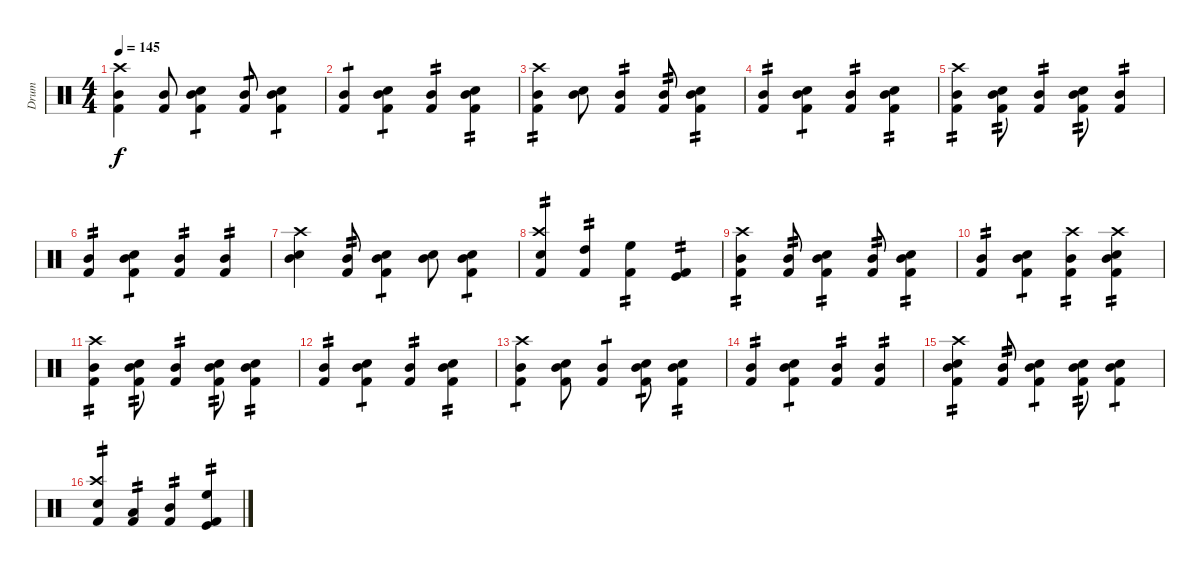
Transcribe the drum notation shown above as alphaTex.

\track ("Drum" "Drum") {instrument percussion}
\staff {score}
\articulation defaults
\ts (4 4)
\tempo 145
\clef neutral
\ks c
("Mid Tom (hit)" "Kick (hit) 2" "Crash high (hit)").4{dy f} ("Mid Tom (hit)" "Kick (hit) 2").8 ("Mid Tom (hit)" "Kick (hit) 2" "Snare (hit) 2").4{tp 1} ("Mid Tom (hit)" "Kick (hit) 2").8{tp 1} ("Mid Tom (hit)" "Snare (hit) 2" "Kick (hit) 2").4{tp 1} |
("Mid Tom (hit)" "Kick (hit) 2").4{tp 1} ("Mid Tom (hit)" "Kick (hit) 2" "Snare (hit) 2").4{tp 1} ("Mid Tom (hit)" "Kick (hit) 2").4{tp 2} ("Mid Tom (hit)" "Kick (hit) 2" "Snare (hit) 2").4{tp 2} |
("Mid Tom (hit)" "Kick (hit) 2" "Crash high (hit)").4{tp 2} ("Mid Tom (hit)" "Snare (hit) 2").8 ("Mid Tom (hit)" "Kick (hit) 2").4{tp 2} ("Mid Tom (hit)" "Kick (hit) 2").8{tp 2} ("Mid Tom (hit)" "Snare (hit) 2" "Kick (hit) 2").4{tp 2} |
("Mid Tom (hit)" "Kick (hit) 2").4{tp 2} ("Mid Tom (hit)" "Kick (hit) 2" "Snare (hit) 2").4{tp 1} ("Mid Tom (hit)" "Kick (hit) 2").4{tp 2} ("Mid Tom (hit)" "Kick (hit) 2" "Snare (hit) 2").4{tp 2} |
("Mid Tom (hit)" "Kick (hit) 2" "Crash high (hit)").4{tp 2} ("Mid Tom (hit)" "Snare (hit) 2" "Kick (hit) 2").8{tp 2} ("Mid Tom (hit)" "Kick (hit) 2").4{tp 2} ("Mid Tom (hit)" "Snare (hit) 2" "Kick (hit) 2").8{tp 2} ("Mid Tom (hit)" "Kick (hit) 2").4{tp 2} |
("Mid Tom (hit)" "Kick (hit) 2").4{tp 2} ("Mid Tom (hit)" "Kick (hit) 2" "Snare (hit) 2").4{tp 1} ("Mid Tom (hit)" "Kick (hit) 2").4{tp 2} ("Mid Tom (hit)" "Kick (hit) 2").4{tp 2} |
("Mid Tom (hit)" "Snare (hit) 2" "Crash high (hit)").4 ("Mid Tom (hit)" "Kick (hit) 2").8{tp 2} ("Mid Tom (hit)" "Kick (hit) 2" "Snare (hit) 2").4{tp 1} ("Mid Tom (hit)" "Snare (hit) 2").8 ("Mid Tom (hit)" "Snare (hit) 2" "Kick (hit) 2").4{tp 1} |
("Crash high (hit)" "Kick (hit) 2" "Snare (hit) 2").4{tp 2} ("High Tom (hit)" "Kick (hit) 2").4{tp 2} ("High Floor Tom (hit)" "Kick (hit) 2").4{tp 2} ("Kick (hit)" "Kick (hit) 2").4{tp 2} |
("Mid Tom (hit)" "Kick (hit) 2" "Crash high (hit)").4{tp 2} ("Mid Tom (hit)" "Kick (hit) 2").8{tp 2} ("Mid Tom (hit)" "Kick (hit) 2" "Snare (hit) 2").4{tp 2} ("Mid Tom (hit)" "Kick (hit) 2").8{tp 2} ("Mid Tom (hit)" "Snare (hit) 2" "Kick (hit) 2").4{tp 2} |
("Mid Tom (hit)" "Kick (hit) 2").4{tp 2} ("Mid Tom (hit)" "Kick (hit) 2" "Snare (hit) 2").4{tp 1} ("Mid Tom (hit)" "Kick (hit) 2" "Crash high (hit)").4{tp 2} ("Mid Tom (hit)" "Snare (hit) 2" "Crash high (hit)" "Kick (hit) 2").4{tp 2} |
("Mid Tom (hit)" "Kick (hit) 2" "Crash high (hit)").4{tp 2} ("Mid Tom (hit)" "Kick (hit) 2" "Snare (hit) 2").8{tp 2} ("Mid Tom (hit)" "Kick (hit) 2").4{tp 2} ("Mid Tom (hit)" "Snare (hit) 2" "Kick (hit) 2").8{tp 2} ("Mid Tom (hit)" "Snare (hit) 2" "Kick (hit) 2").4{tp 2} |
("Mid Tom (hit)" "Kick (hit) 2").4{tp 2} ("Mid Tom (hit)" "Kick (hit) 2" "Snare (hit) 2").4{tp 1} ("Mid Tom (hit)" "Kick (hit) 2").4{tp 2} ("Mid Tom (hit)" "Kick (hit) 2" "Snare (hit) 2").4{tp 2} |
("Mid Tom (hit)" "Kick (hit) 2" "Crash high (hit)").4{tp 1} ("Mid Tom (hit)" "Snare (hit) 2" "Kick (hit) 2").8 ("Mid Tom (hit)" "Kick (hit) 2").4{tp 1} ("Mid Tom (hit)" "Kick (hit) 2" "Snare (hit) 2").8{tp 1} ("Mid Tom (hit)" "Snare (hit) 2" "Kick (hit) 2").4{tp 2} |
("Mid Tom (hit)" "Kick (hit) 2").4{tp 2} ("Mid Tom (hit)" "Kick (hit) 2" "Snare (hit) 2").4{tp 1} ("Mid Tom (hit)" "Kick (hit) 2").4{tp 2} ("Mid Tom (hit)" "Kick (hit) 2").4{tp 2} |
("Mid Tom (hit)" "Kick (hit) 2" "Snare (hit) 2" "Crash high (hit)").4{tp 2} ("Mid Tom (hit)" "Kick (hit) 2").8{tp 2} ("Mid Tom (hit)" "Kick (hit) 2" "Snare (hit) 2").4{tp 1} ("Mid Tom (hit)" "Snare (hit) 2" "Kick (hit) 2").8{tp 2} ("Mid Tom (hit)" "Snare (hit) 2" "Kick (hit) 2").4{tp 1} |
("Crash high (hit)" "Kick (hit) 2" "Snare (hit) 2").4{tp 2} ("Low Tom (hit)" "Kick (hit) 2").4{tp 2} ("Mid Tom (hit)" "Kick (hit) 2").4{tp 2} ("Kick (hit)" "Kick (hit) 2" "High Floor Tom (hit)").4{tp 2}
